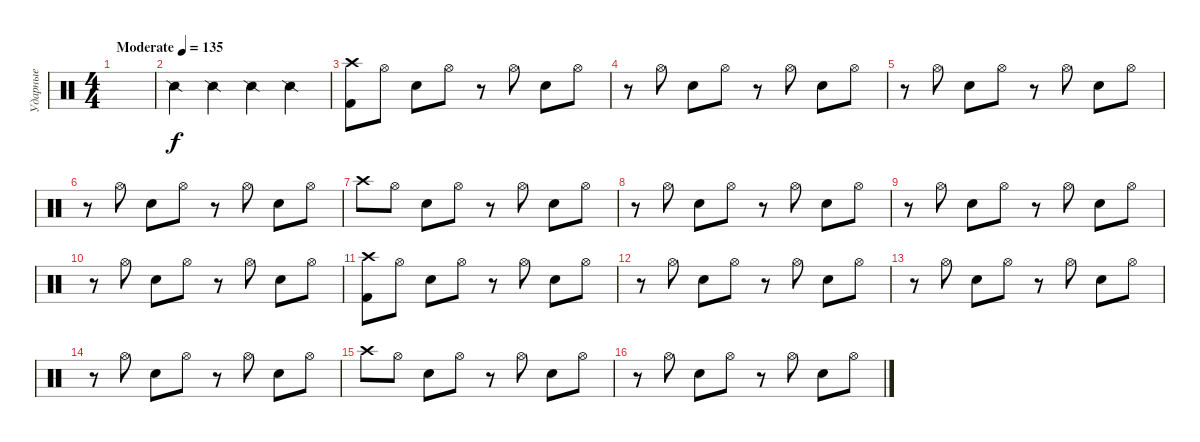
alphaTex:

\track ("Ударные" "Ударные") {instrument percussion}
\staff {score}
\articulation defaults
\ts (4 4)
\tempo (135 "Moderate")
\clef neutral
\ks c
|
"Snare (side stick) 2".4 "Snare (side stick) 2".4 "Snare (side stick) 2".4 "Snare (side stick) 2".4 |
("Kick (hit) 2" "Crash high (hit)").8 "Hi-Hat (open)".8 "Hand Clap (hit)".8 "Hi-Hat (open)".8 r.8 "Hi-Hat (open)".8 "Hand Clap (hit)".8 "Hi-Hat (open)".8 |
r.8 "Hi-Hat (open)".8 "Hand Clap (hit)".8 "Hi-Hat (open)".8 r.8 "Hi-Hat (open)".8 "Hand Clap (hit)".8 "Hi-Hat (open)".8 |
r.8 "Hi-Hat (open)".8 "Hand Clap (hit)".8 "Hi-Hat (open)".8 r.8 "Hi-Hat (open)".8 "Hand Clap (hit)".8 "Hi-Hat (open)".8 |
r.8 "Hi-Hat (open)".8 "Hand Clap (hit)".8 "Hi-Hat (open)".8 r.8 "Hi-Hat (open)".8 "Hand Clap (hit)".8 "Hi-Hat (open)".8 |
"Crash high (hit)".8 "Hi-Hat (open)".8 "Hand Clap (hit)".8 "Hi-Hat (open)".8 r.8 "Hi-Hat (open)".8 "Hand Clap (hit)".8 "Hi-Hat (open)".8 |
r.8 "Hi-Hat (open)".8 "Hand Clap (hit)".8 "Hi-Hat (open)".8 r.8 "Hi-Hat (open)".8 "Hand Clap (hit)".8 "Hi-Hat (open)".8 |
r.8 "Hi-Hat (open)".8 "Hand Clap (hit)".8 "Hi-Hat (open)".8 r.8 "Hi-Hat (open)".8 "Hand Clap (hit)".8 "Hi-Hat (open)".8 |
r.8 "Hi-Hat (open)".8 "Hand Clap (hit)".8 "Hi-Hat (open)".8 r.8 "Hi-Hat (open)".8 "Hand Clap (hit)".8 "Hi-Hat (open)".8 |
("Kick (hit) 2" "Crash high (hit)").8 "Hi-Hat (open)".8 "Hand Clap (hit)".8 "Hi-Hat (open)".8 r.8 "Hi-Hat (open)".8 "Hand Clap (hit)".8 "Hi-Hat (open)".8 |
r.8 "Hi-Hat (open)".8 "Hand Clap (hit)".8 "Hi-Hat (open)".8 r.8 "Hi-Hat (open)".8 "Hand Clap (hit)".8 "Hi-Hat (open)".8 |
r.8 "Hi-Hat (open)".8 "Hand Clap (hit)".8 "Hi-Hat (open)".8 r.8 "Hi-Hat (open)".8 "Hand Clap (hit)".8 "Hi-Hat (open)".8 |
r.8 "Hi-Hat (open)".8 "Hand Clap (hit)".8 "Hi-Hat (open)".8 r.8 "Hi-Hat (open)".8 "Hand Clap (hit)".8 "Hi-Hat (open)".8 |
"Crash high (hit)".8 "Hi-Hat (open)".8 "Hand Clap (hit)".8 "Hi-Hat (open)".8 r.8 "Hi-Hat (open)".8 "Hand Clap (hit)".8 "Hi-Hat (open)".8 |
r.8 "Hi-Hat (open)".8 "Hand Clap (hit)".8 "Hi-Hat (open)".8 r.8 "Hi-Hat (open)".8 "Hand Clap (hit)".8 "Hi-Hat (open)".8
